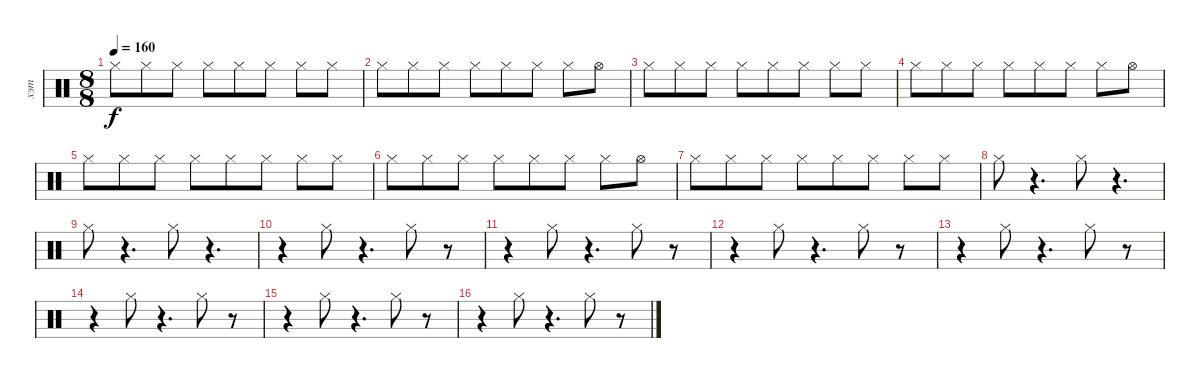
\track ("хэт" "хэт") {instrument percussion}
\staff {score}
\articulation defaults
\ts (8 8)
\tempo 160
\clef neutral
\ks c "Hi-Hat (closed)".8{dy f} "Hi-Hat (closed)".8 "Hi-Hat (closed)".8 "Hi-Hat (closed)".8 "Hi-Hat (closed)".8 "Hi-Hat (closed)".8 "Hi-Hat (closed)".8 "Hi-Hat (closed)".8
|
"Hi-Hat (closed)".8 "Hi-Hat (closed)".8 "Hi-Hat (closed)".8 "Hi-Hat (closed)".8 "Hi-Hat (closed)".8 "Hi-Hat (closed)".8 "Hi-Hat (closed)".8 "Hi-Hat (open)".8 |
"Hi-Hat (closed)".8 "Hi-Hat (closed)".8 "Hi-Hat (closed)".8 "Hi-Hat (closed)".8 "Hi-Hat (closed)".8 "Hi-Hat (closed)".8 "Hi-Hat (closed)".8 "Hi-Hat (closed)".8 |
"Hi-Hat (closed)".8 "Hi-Hat (closed)".8 "Hi-Hat (closed)".8 "Hi-Hat (closed)".8 "Hi-Hat (closed)".8 "Hi-Hat (closed)".8 "Hi-Hat (closed)".8 "Hi-Hat (open)".8 |
"Hi-Hat (closed)".8 "Hi-Hat (closed)".8 "Hi-Hat (closed)".8 "Hi-Hat (closed)".8 "Hi-Hat (closed)".8 "Hi-Hat (closed)".8 "Hi-Hat (closed)".8 "Hi-Hat (closed)".8 |
"Hi-Hat (closed)".8 "Hi-Hat (closed)".8 "Hi-Hat (closed)".8 "Hi-Hat (closed)".8 "Hi-Hat (closed)".8 "Hi-Hat (closed)".8 "Hi-Hat (closed)".8 "Hi-Hat (open)".8 |
"Hi-Hat (closed)".8 "Hi-Hat (closed)".8 "Hi-Hat (closed)".8 "Hi-Hat (closed)".8 "Hi-Hat (closed)".8 "Hi-Hat (closed)".8 "Hi-Hat (closed)".8 "Hi-Hat (closed)".8 |
"Hi-Hat (closed)".8 r.4{d} "Hi-Hat (closed)".8 r.4{d} |
"Hi-Hat (closed)".8 r.4{d} "Hi-Hat (closed)".8 r.4{d} |
r.4 "Hi-Hat (closed)".8 r.4{d} "Hi-Hat (closed)".8 r.8 |
r.4 "Hi-Hat (closed)".8 r.4{d} "Hi-Hat (closed)".8 r.8 |
r.4 "Hi-Hat (closed)".8 r.4{d} "Hi-Hat (closed)".8 r.8 |
r.4 "Hi-Hat (closed)".8 r.4{d} "Hi-Hat (closed)".8 r.8 |
r.4 "Hi-Hat (closed)".8 r.4{d} "Hi-Hat (closed)".8 r.8 |
r.4 "Hi-Hat (closed)".8 r.4{d} "Hi-Hat (closed)".8 r.8 |
r.4 "Hi-Hat (closed)".8 r.4{d} "Hi-Hat (closed)".8 r.8
